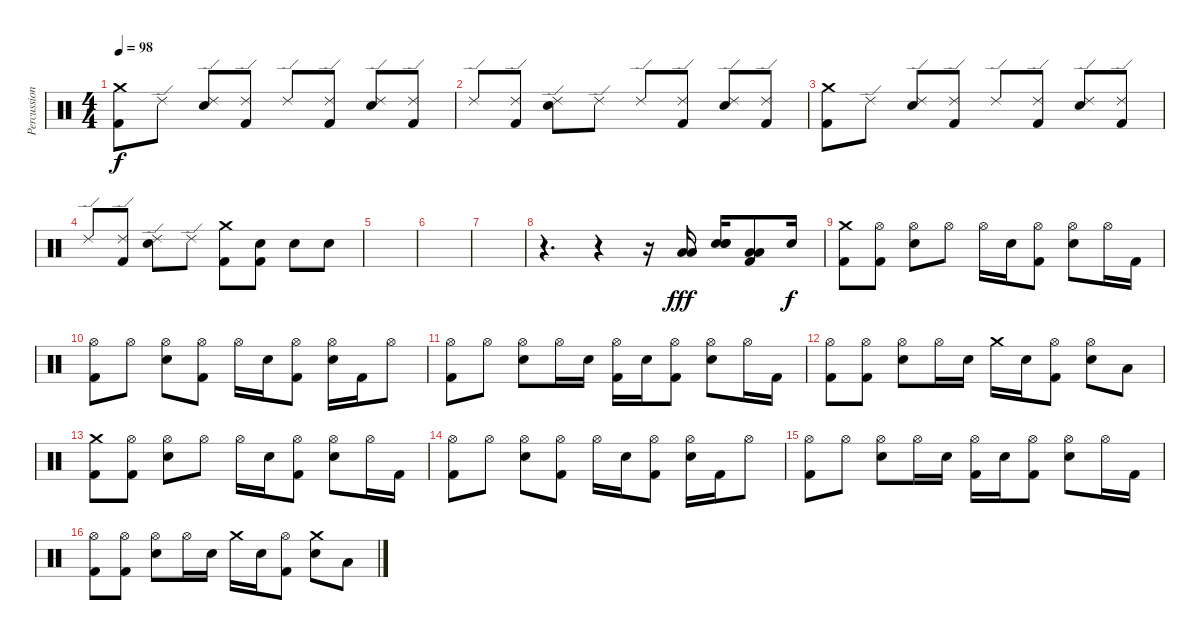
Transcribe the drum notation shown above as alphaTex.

\track ("Percussion" "Percussion") {instrument percussion}
\staff {score}
\articulation defaults
\ts (4 4)
\tempo 98
\clef neutral
\ks c
("Crash medium (hit)" "Kick (hit) 2").8{dy f} "Ride (edge) 2".8 ("Ride (edge) 2" "Electric Snare (hit)").8 ("Ride (edge) 2" "Kick (hit) 2").8 "Ride (edge) 2".8 ("Ride (edge) 2" "Kick (hit) 2").8 ("Ride (edge) 2" "Electric Snare (hit)").8 ("Ride (edge) 2" "Kick (hit) 2").8 |
"Ride (edge) 2".8 ("Ride (edge) 2" "Kick (hit) 2").8 ("Ride (edge) 2" "Electric Snare (hit)").8 "Ride (edge) 2".8 "Ride (edge) 2".8 ("Ride (edge) 2" "Kick (hit) 2").8 ("Ride (edge) 2" "Electric Snare (hit)").8 ("Ride (edge) 2" "Kick (hit) 2").8 |
("Crash medium (hit)" "Kick (hit) 2").8 "Ride (edge) 2".8 ("Ride (edge) 2" "Electric Snare (hit)").8 ("Ride (edge) 2" "Kick (hit) 2").8 "Ride (edge) 2".8 ("Ride (edge) 2" "Kick (hit) 2").8 ("Ride (edge) 2" "Electric Snare (hit)").8 ("Ride (edge) 2" "Kick (hit) 2").8 |
"Ride (edge) 2".8 ("Ride (edge) 2" "Kick (hit) 2").8 ("Ride (edge) 2" "Electric Snare (hit)").8 "Ride (edge) 2".8 ("Crash medium (hit)" "Kick (hit) 2").8 ("Electric Snare (hit)" "Kick (hit) 2").8 "Electric Snare (hit)".8 "Electric Snare (hit)".8 |
|
|
|
r.4{d} r.4 r.16 ("Low Tom (hit)" "Low Tom (hit)").16{dy fff} ("Electric Snare (hit)" "Electric Snare (hit)" "Electric Snare (hit)").16 ("Low Tom (hit)" "Low Tom (hit)" "Kick (hit) 2").8 "Electric Snare (hit)".16{dy f} |
("Crash medium (hit)" "Kick (hit) 2").8 ("Hi-Hat (open)" "Kick (hit) 2").8 ("Hi-Hat (open)" "Electric Snare (hit)").8 "Hi-Hat (open)".8 "Hi-Hat (open)".16 "Electric Snare (hit)".16 ("Hi-Hat (open)" "Kick (hit) 2").8 ("Hi-Hat (open)" "Electric Snare (hit)").8 "Hi-Hat (open)".16 "Kick (hit) 2".16 |
("Hi-Hat (open)" "Kick (hit) 2").8 "Hi-Hat (open)".8 ("Hi-Hat (open)" "Electric Snare (hit)").8 ("Hi-Hat (open)" "Kick (hit) 2").8 "Hi-Hat (open)".16 "Electric Snare (hit)".16 ("Hi-Hat (open)" "Kick (hit) 2").8 ("Hi-Hat (open)" "Electric Snare (hit)").16 "Kick (hit) 2".16 "Hi-Hat (open)".8 |
("Hi-Hat (open)" "Kick (hit) 2").8 "Hi-Hat (open)".8 ("Hi-Hat (open)" "Electric Snare (hit)").8 "Hi-Hat (open)".16 "Electric Snare (hit)".16 ("Hi-Hat (open)" "Kick (hit) 2").16 "Electric Snare (hit)".16 ("Hi-Hat (open)" "Kick (hit) 2").8 ("Hi-Hat (open)" "Electric Snare (hit)").8 "Hi-Hat (open)".16 "Kick (hit) 2".16 |
("Hi-Hat (open)" "Kick (hit) 2").8 ("Hi-Hat (open)" "Kick (hit) 2").8 ("Hi-Hat (open)" "Electric Snare (hit)").8 "Hi-Hat (open)".16 "Electric Snare (hit)".16 "Crash medium (hit)".16 "Electric Snare (hit)".16 ("Hi-Hat (open)" "Kick (hit) 2").8 ("Hi-Hat (open)" "Electric Snare (hit)").8 "Low Tom (hit)".8 |
("Crash medium (hit)" "Kick (hit) 2").8 ("Hi-Hat (open)" "Kick (hit) 2").8 ("Hi-Hat (open)" "Electric Snare (hit)").8 "Hi-Hat (open)".8 "Hi-Hat (open)".16 "Electric Snare (hit)".16 ("Hi-Hat (open)" "Kick (hit) 2").8 ("Hi-Hat (open)" "Electric Snare (hit)").8 "Hi-Hat (open)".16 "Kick (hit) 2".16 |
("Hi-Hat (open)" "Kick (hit) 2").8 "Hi-Hat (open)".8 ("Hi-Hat (open)" "Electric Snare (hit)").8 ("Hi-Hat (open)" "Kick (hit) 2").8 "Hi-Hat (open)".16 "Electric Snare (hit)".16 ("Hi-Hat (open)" "Kick (hit) 2").8 ("Hi-Hat (open)" "Electric Snare (hit)").16 "Kick (hit) 2".16 "Hi-Hat (open)".8 |
("Hi-Hat (open)" "Kick (hit) 2").8 "Hi-Hat (open)".8 ("Hi-Hat (open)" "Electric Snare (hit)").8 "Hi-Hat (open)".16 "Electric Snare (hit)".16 ("Hi-Hat (open)" "Kick (hit) 2").16 "Electric Snare (hit)".16 ("Hi-Hat (open)" "Kick (hit) 2").8 ("Hi-Hat (open)" "Electric Snare (hit)").8 "Hi-Hat (open)".16 "Kick (hit) 2".16 |
("Hi-Hat (open)" "Kick (hit) 2").8 ("Hi-Hat (open)" "Kick (hit) 2").8 ("Hi-Hat (open)" "Electric Snare (hit)").8 "Hi-Hat (open)".16 "Electric Snare (hit)".16 "Crash medium (hit)".16 "Electric Snare (hit)".16 ("Hi-Hat (open)" "Kick (hit) 2").8 ("Crash medium (hit)" "Electric Snare (hit)").8 "Low Tom (hit)".8
